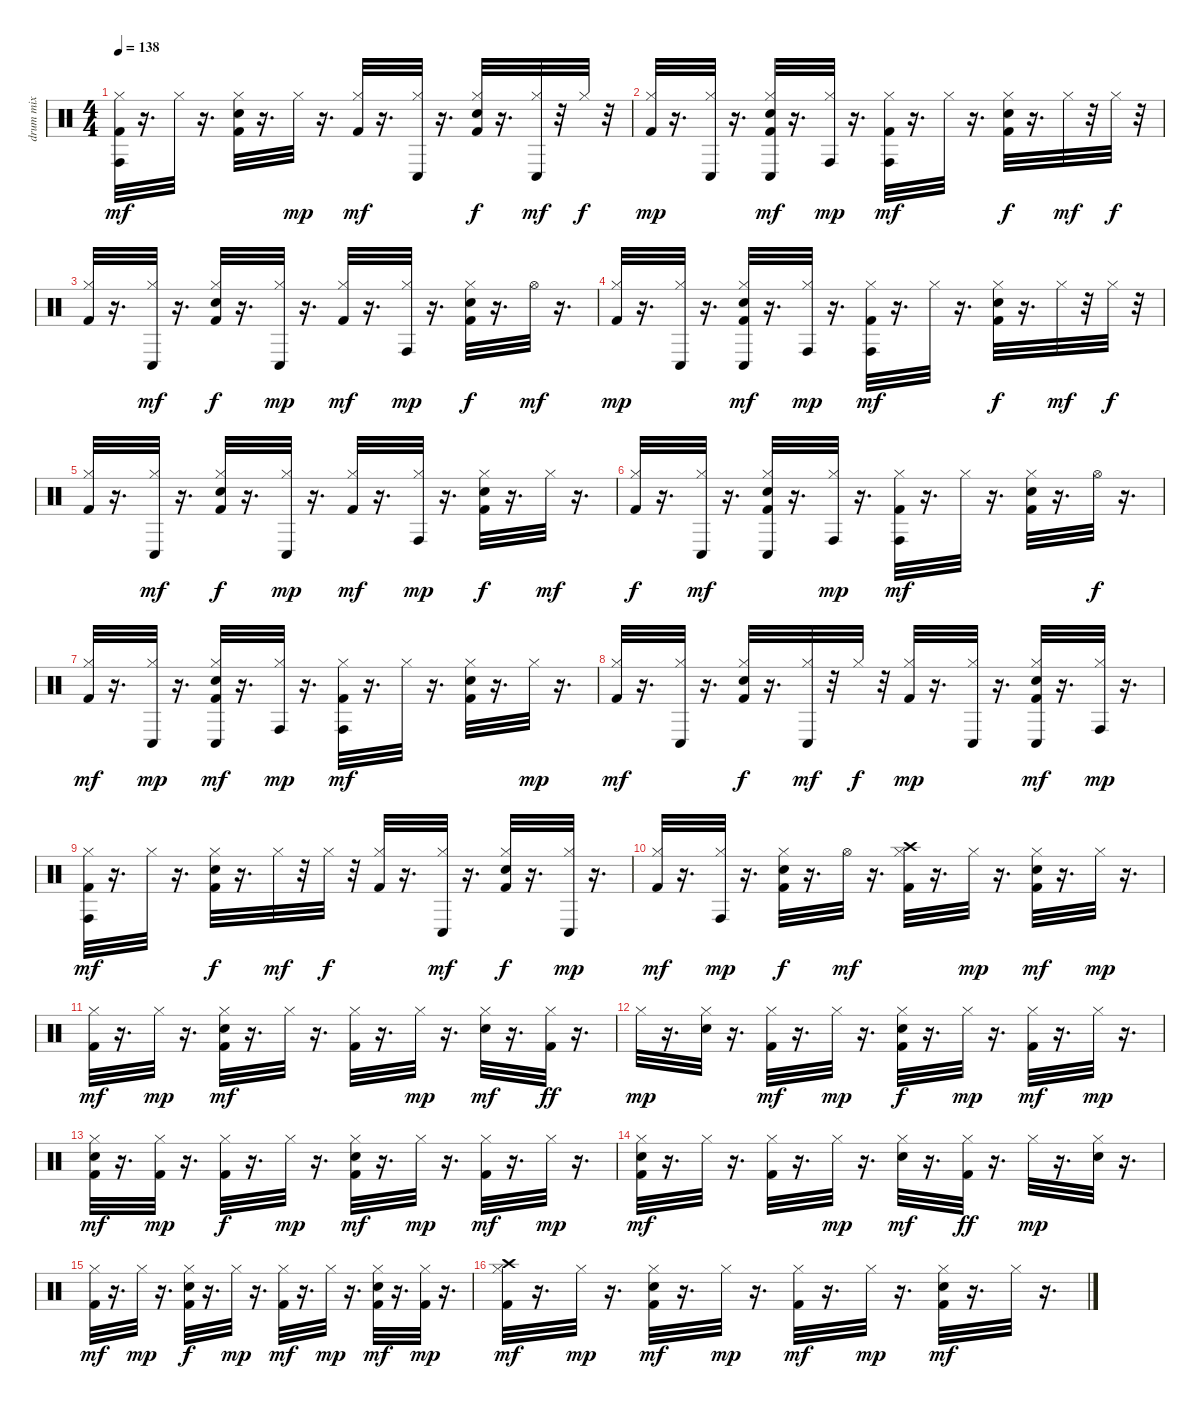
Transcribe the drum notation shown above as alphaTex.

\track ("drum mix" "drum mix") {instrument percussion}
\staff {score}
\articulation defaults
\ts (4 4)
\tempo 138
\clef neutral
\ks c
("Hi-Hat (closed)" "Conga high (hit)" "Kick (hit) 2").32{dy mf} r.16{d} "Hi-Hat (closed)".32 r.16{d} ("Snare (hit) 2" "Hi-Hat (closed)" "Kick (hit) 2").32 r.16{d} "Hi-Hat (closed)".32{dy mp} r.16{d} ("Hi-Hat (closed)" "Kick (hit) 2").32{dy mf} r.16{d} ("Hi-Hat (closed)" "Conga low (hit)").32 r.16{d} ("Snare (hit) 2" "Hi-Hat (closed)" "Kick (hit) 2").32{dy f} r.16{d} ("Hi-Hat (closed)" "Conga low (hit)").32{dy mf} r.32 "Hi-Hat (closed)".32{dy f} r.32 |
("Hi-Hat (closed)" "Kick (hit) 2").32{dy mp} r.16{d} ("Hi-Hat (closed)" "Conga low (hit)").32 r.16{d} ("Snare (hit) 2" "Hi-Hat (closed)" "Conga low (hit)" "Kick (hit) 2").32{dy mf} r.16{d} ("Hi-Hat (closed)" "Conga high (hit)").32{dy mp} r.16{d} ("Hi-Hat (closed)" "Conga high (hit)" "Kick (hit) 2").32{dy mf} r.16{d} "Hi-Hat (closed)".32 r.16{d} ("Snare (hit) 2" "Hi-Hat (closed)" "Kick (hit) 2").32{dy f} r.16{d} "Hi-Hat (closed)".32{dy mf} r.32 "Hi-Hat (closed)".32{dy f} r.32 |
("Hi-Hat (closed)" "Kick (hit) 2").32 r.16{d} ("Hi-Hat (closed)" "Conga low (hit)").32{dy mf} r.16{d} ("Snare (hit) 2" "Hi-Hat (closed)" "Kick (hit) 2").32{dy f} r.16{d} ("Hi-Hat (closed)" "Conga low (hit)").32{dy mp} r.16{d} ("Hi-Hat (closed)" "Kick (hit) 2").32{dy mf} r.16{d} ("Hi-Hat (closed)" "Conga high (hit)").32{dy mp} r.16{d} ("Snare (hit) 2" "Hi-Hat (closed)" "Kick (hit) 2").32{dy f} r.16{d} "Hi-Hat (open)".32{dy mf} r.16{d} |
("Hi-Hat (closed)" "Kick (hit) 2").32{dy mp} r.16{d} ("Hi-Hat (closed)" "Conga low (hit)").32 r.16{d} ("Snare (hit) 2" "Hi-Hat (closed)" "Conga low (hit)" "Kick (hit) 2").32{dy mf} r.16{d} ("Hi-Hat (closed)" "Conga high (hit)").32{dy mp} r.16{d} ("Hi-Hat (closed)" "Conga high (hit)" "Kick (hit) 2").32{dy mf} r.16{d} "Hi-Hat (closed)".32 r.16{d} ("Snare (hit) 2" "Hi-Hat (closed)" "Kick (hit) 2").32{dy f} r.16{d} "Hi-Hat (closed)".32{dy mf} r.32 "Hi-Hat (closed)".32{dy f} r.32 |
("Hi-Hat (closed)" "Kick (hit) 2").32 r.16{d} ("Hi-Hat (closed)" "Conga low (hit)").32{dy mf} r.16{d} ("Snare (hit) 2" "Hi-Hat (closed)" "Kick (hit) 2").32{dy f} r.16{d} ("Hi-Hat (closed)" "Conga low (hit)").32{dy mp} r.16{d} ("Hi-Hat (closed)" "Kick (hit) 2").32{dy mf} r.16{d} ("Hi-Hat (closed)" "Conga high (hit)").32{dy mp} r.16{d} ("Snare (hit) 2" "Hi-Hat (closed)" "Kick (hit) 2").32{dy f} r.16{d} "Hi-Hat (closed)".32{dy mf} r.16{d} |
("Hi-Hat (closed)" "Kick (hit) 2").32{dy f} r.16{d} ("Hi-Hat (closed)" "Conga low (hit)").32{dy mf} r.16{d} ("Snare (hit) 2" "Hi-Hat (closed)" "Conga low (hit)" "Kick (hit) 2").32 r.16{d} ("Hi-Hat (closed)" "Conga high (hit)").32{dy mp} r.16{d} ("Hi-Hat (closed)" "Conga high (hit)" "Kick (hit) 2").32{dy mf} r.16{d} "Hi-Hat (closed)".32 r.16{d} ("Snare (hit) 2" "Hi-Hat (closed)" "Kick (hit) 2").32 r.16{d} "Hi-Hat (open)".32{dy f} r.16{d} |
("Hi-Hat (closed)" "Kick (hit) 2").32{dy mf} r.16{d} ("Hi-Hat (closed)" "Conga low (hit)").32{dy mp} r.16{d} ("Snare (hit) 2" "Hi-Hat (closed)" "Conga low (hit)" "Kick (hit) 2").32{dy mf} r.16{d} ("Hi-Hat (closed)" "Conga high (hit)").32{dy mp} r.16{d} ("Hi-Hat (closed)" "Conga high (hit)" "Kick (hit) 2").32{dy mf} r.16{d} "Hi-Hat (closed)".32 r.16{d} ("Snare (hit) 2" "Hi-Hat (closed)" "Kick (hit) 2").32 r.16{d} "Hi-Hat (closed)".32{dy mp} r.16{d} |
("Hi-Hat (closed)" "Kick (hit) 2").32{dy mf} r.16{d} ("Hi-Hat (closed)" "Conga low (hit)").32 r.16{d} ("Snare (hit) 2" "Hi-Hat (closed)" "Kick (hit) 2").32{dy f} r.16{d} ("Hi-Hat (closed)" "Conga low (hit)").32{dy mf} r.32 "Hi-Hat (closed)".32{dy f} r.32 ("Hi-Hat (closed)" "Kick (hit) 2").32{dy mp} r.16{d} ("Hi-Hat (closed)" "Conga low (hit)").32 r.16{d} ("Snare (hit) 2" "Hi-Hat (closed)" "Conga low (hit)" "Kick (hit) 2").32{dy mf} r.16{d} ("Hi-Hat (closed)" "Conga high (hit)").32{dy mp} r.16{d} |
("Hi-Hat (closed)" "Conga high (hit)" "Kick (hit) 2").32{dy mf} r.16{d} "Hi-Hat (closed)".32 r.16{d} ("Snare (hit) 2" "Hi-Hat (closed)" "Kick (hit) 2").32{dy f} r.16{d} "Hi-Hat (closed)".32{dy mf} r.32 "Hi-Hat (closed)".32{dy f} r.32 ("Hi-Hat (closed)" "Kick (hit) 2").32 r.16{d} ("Hi-Hat (closed)" "Conga low (hit)").32{dy mf} r.16{d} ("Snare (hit) 2" "Hi-Hat (closed)" "Kick (hit) 2").32{dy f} r.16{d} ("Hi-Hat (closed)" "Conga low (hit)").32{dy mp} r.16{d} |
("Hi-Hat (closed)" "Kick (hit) 2").32{dy mf} r.16{d} ("Hi-Hat (closed)" "Conga high (hit)").32{dy mp} r.16{d} ("Snare (hit) 2" "Hi-Hat (closed)" "Kick (hit) 2").32{dy f} r.16{d} "Hi-Hat (open)".32{dy mf} r.16{d} ("Hi-Hat (closed)" "Crash high (hit)" "Kick (hit) 2").32 r.16{d} "Hi-Hat (closed)".32{dy mp} r.16{d} ("Snare (hit) 2" "Hi-Hat (closed)" "Kick (hit) 2").32{dy mf} r.16{d} "Hi-Hat (closed)".32{dy mp} r.16{d} |
("Hi-Hat (closed)" "Kick (hit) 2").32{dy mf} r.16{d} "Hi-Hat (closed)".32{dy mp} r.16{d} ("Snare (hit) 2" "Hi-Hat (closed)" "Kick (hit) 2").32{dy mf} r.16{d} "Hi-Hat (closed)".32 r.16{d} ("Hi-Hat (closed)" "Kick (hit) 2").32 r.16{d} "Hi-Hat (closed)".32{dy mp} r.16{d} ("Snare (hit) 2" "Hi-Hat (closed)").32{dy mf} r.16{d} ("Hi-Hat (closed)" "Kick (hit) 2").32{dy ff} r.16{d} |
"Hi-Hat (closed)".32{dy mp} r.16{d} ("Snare (hit) 2" "Hi-Hat (closed)").32 r.16{d} ("Hi-Hat (closed)" "Kick (hit) 2").32{dy mf} r.16{d} "Hi-Hat (closed)".32{dy mp} r.16{d} ("Snare (hit) 2" "Hi-Hat (closed)" "Kick (hit) 2").32{dy f} r.16{d} "Hi-Hat (closed)".32{dy mp} r.16{d} ("Hi-Hat (closed)" "Kick (hit) 2").32{dy mf} r.16{d} "Hi-Hat (closed)".32{dy mp} r.16{d} |
("Snare (hit) 2" "Hi-Hat (closed)" "Kick (hit) 2").32{dy mf} r.16{d} ("Hi-Hat (closed)" "Kick (hit) 2").32{dy mp} r.16{d} ("Hi-Hat (closed)" "Kick (hit) 2").32{dy f} r.16{d} "Hi-Hat (closed)".32{dy mp} r.16{d} ("Snare (hit) 2" "Hi-Hat (closed)" "Kick (hit) 2").32{dy mf} r.16{d} "Hi-Hat (closed)".32{dy mp} r.16{d} ("Hi-Hat (closed)" "Kick (hit) 2").32{dy mf} r.16{d} "Hi-Hat (closed)".32{dy mp} r.16{d} |
("Snare (hit) 2" "Hi-Hat (closed)" "Kick (hit) 2").32{dy mf} r.16{d} "Hi-Hat (closed)".32 r.16{d} ("Hi-Hat (closed)" "Kick (hit) 2").32 r.16{d} "Hi-Hat (closed)".32{dy mp} r.16{d} ("Snare (hit) 2" "Hi-Hat (closed)").32{dy mf} r.16{d} ("Hi-Hat (closed)" "Kick (hit) 2").32{dy ff} r.16{d} "Hi-Hat (closed)".32{dy mp} r.16{d} ("Snare (hit) 2" "Hi-Hat (closed)").32 r.16{d} |
("Hi-Hat (closed)" "Kick (hit) 2").32{dy mf} r.16{d} "Hi-Hat (closed)".32{dy mp} r.16{d} ("Snare (hit) 2" "Hi-Hat (closed)" "Kick (hit) 2").32{dy f} r.16{d} "Hi-Hat (closed)".32{dy mp} r.16{d} ("Hi-Hat (closed)" "Kick (hit) 2").32{dy mf} r.16{d} "Hi-Hat (closed)".32{dy mp} r.16{d} ("Snare (hit) 2" "Hi-Hat (closed)" "Kick (hit) 2").32{dy mf} r.16{d} ("Hi-Hat (closed)" "Kick (hit) 2").32{dy mp} r.16{d} |
("Hi-Hat (closed)" "Crash high (hit)" "Kick (hit) 2").32{dy mf} r.16{d} "Hi-Hat (closed)".32{dy mp} r.16{d} ("Snare (hit) 2" "Hi-Hat (closed)" "Kick (hit) 2").32{dy mf} r.16{d} "Hi-Hat (closed)".32{dy mp} r.16{d} ("Hi-Hat (closed)" "Kick (hit) 2").32{dy mf} r.16{d} "Hi-Hat (closed)".32{dy mp} r.16{d} ("Snare (hit) 2" "Hi-Hat (closed)" "Kick (hit) 2").32{dy mf} r.16{d} "Hi-Hat (closed)".32 r.16{d}
